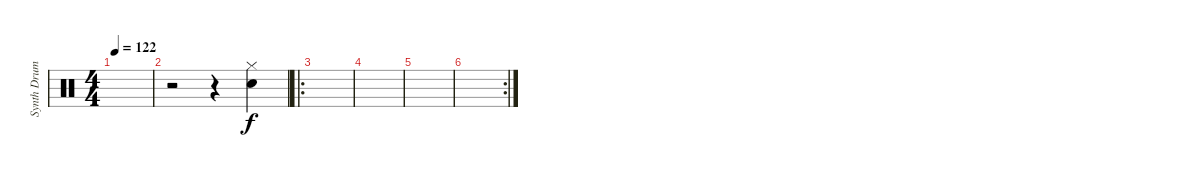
\track ("Synth Drums" "Synth Drum") {instrument percussion}
\staff {score}
\articulation defaults
\ts (4 4)
\tempo 122
\clef neutral
\ks c
|
r.2 r.4 ("Hi-Hat (closed)" "Snare (hit) 2").4 |
\ro
|
|
|
\rc 2
